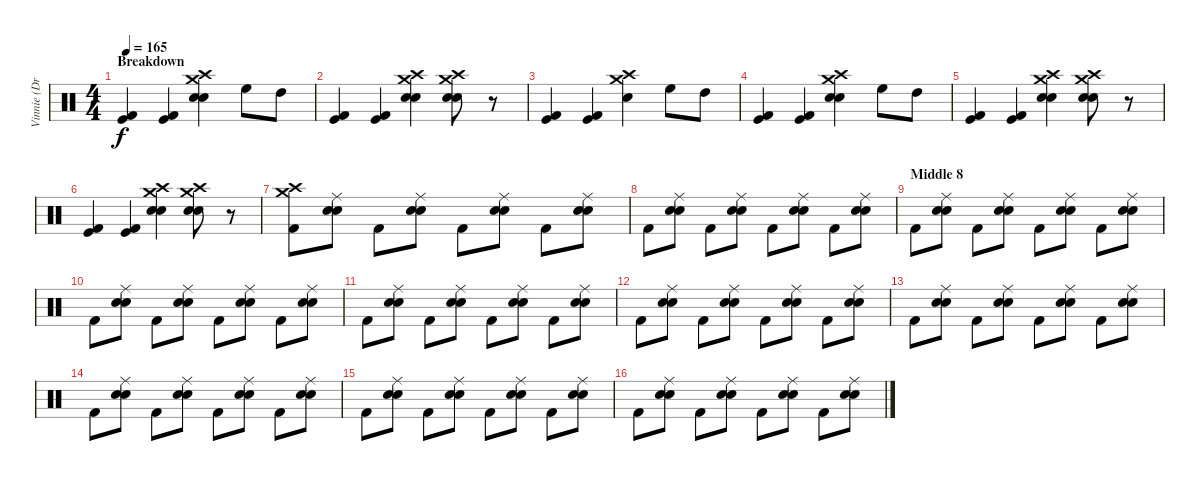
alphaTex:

\track ("Vinnie (Drums)" "Vinnie (Dr") {instrument percussion}
\staff {score}
\articulation defaults
\ts (4 4)
\section ("" "Breakdown")
\tempo 165
\clef neutral
\ks c
("Kick (hit) 2" "Kick (hit)").4{dy f} ("Kick (hit) 2" "Kick (hit)").4 ("Snare (hit) 2" "Electric Snare (hit)" "Crash medium (hit)" "Crash high (hit)").4 "High Floor Tom (hit)".8 "High Tom (hit)".8 |
("Kick (hit) 2" "Kick (hit)").4 ("Kick (hit) 2" "Kick (hit)").4 ("Snare (hit) 2" "Crash medium (hit)" "Crash high (hit)" "Electric Snare (hit)").4 ("Snare (hit) 2" "Crash medium (hit)" "Crash high (hit)" "Electric Snare (hit)").8 r.8 |
("Kick (hit) 2" "Kick (hit)").4 ("Kick (hit) 2" "Kick (hit)").4 ("Snare (hit) 2" "Crash medium (hit)" "Crash high (hit)").4 "High Floor Tom (hit)".8 "High Tom (hit)".8 |
("Kick (hit) 2" "Kick (hit)").4 ("Kick (hit) 2" "Kick (hit)").4 ("Snare (hit) 2" "Electric Snare (hit)" "Crash medium (hit)" "Crash high (hit)").4 "High Floor Tom (hit)".8 "High Tom (hit)".8 |
("Kick (hit) 2" "Kick (hit)").4 ("Kick (hit) 2" "Kick (hit)").4 ("Snare (hit) 2" "Crash medium (hit)" "Crash high (hit)" "Electric Snare (hit)").4 ("Snare (hit) 2" "Crash medium (hit)" "Crash high (hit)" "Electric Snare (hit)").8 r.8 |
("Kick (hit) 2" "Kick (hit)").4 ("Kick (hit) 2" "Kick (hit)").4 ("Snare (hit) 2" "Crash medium (hit)" "Crash high (hit)" "Electric Snare (hit)").4 ("Snare (hit) 2" "Crash medium (hit)" "Crash high (hit)" "Electric Snare (hit)").8 r.8 |
("Kick (hit) 2" "Crash high (hit)" "Crash medium (hit)").8 ("Snare (hit) 2" "Electric Snare (hit)" "Ride (middle)").8 "Kick (hit) 2".8 ("Snare (hit) 2" "Electric Snare (hit)" "Ride (middle)").8 "Kick (hit) 2".8 ("Snare (hit) 2" "Electric Snare (hit)" "Ride (middle)").8 "Kick (hit) 2".8 ("Snare (hit) 2" "Electric Snare (hit)" "Ride (middle)").8 |
"Kick (hit) 2".8 ("Snare (hit) 2" "Electric Snare (hit)" "Ride (middle)").8 "Kick (hit) 2".8 ("Snare (hit) 2" "Electric Snare (hit)" "Ride (middle)").8 "Kick (hit) 2".8 ("Snare (hit) 2" "Electric Snare (hit)" "Ride (middle)").8 "Kick (hit) 2".8 ("Snare (hit) 2" "Electric Snare (hit)" "Ride (middle)").8 |
\section ("" "Middle 8")
"Kick (hit) 2".8 ("Snare (hit) 2" "Electric Snare (hit)" "Ride (middle)").8 "Kick (hit) 2".8 ("Snare (hit) 2" "Electric Snare (hit)" "Ride (middle)").8 "Kick (hit) 2".8 ("Snare (hit) 2" "Electric Snare (hit)" "Ride (middle)").8 "Kick (hit) 2".8 ("Snare (hit) 2" "Electric Snare (hit)" "Ride (middle)").8 |
"Kick (hit) 2".8 ("Snare (hit) 2" "Electric Snare (hit)" "Ride (middle)").8 "Kick (hit) 2".8 ("Snare (hit) 2" "Electric Snare (hit)" "Ride (middle)").8 "Kick (hit) 2".8 ("Snare (hit) 2" "Electric Snare (hit)" "Ride (middle)").8 "Kick (hit) 2".8 ("Snare (hit) 2" "Electric Snare (hit)" "Ride (middle)").8 |
"Kick (hit) 2".8 ("Snare (hit) 2" "Electric Snare (hit)" "Ride (middle)").8 "Kick (hit) 2".8 ("Snare (hit) 2" "Electric Snare (hit)" "Ride (middle)").8 "Kick (hit) 2".8 ("Snare (hit) 2" "Electric Snare (hit)" "Ride (middle)").8 "Kick (hit) 2".8 ("Snare (hit) 2" "Electric Snare (hit)" "Ride (middle)").8 |
"Kick (hit) 2".8 ("Snare (hit) 2" "Electric Snare (hit)" "Ride (middle)").8 "Kick (hit) 2".8 ("Snare (hit) 2" "Electric Snare (hit)" "Ride (middle)").8 "Kick (hit) 2".8 ("Snare (hit) 2" "Electric Snare (hit)" "Ride (middle)").8 "Kick (hit) 2".8 ("Snare (hit) 2" "Electric Snare (hit)" "Ride (middle)").8 |
"Kick (hit) 2".8 ("Snare (hit) 2" "Electric Snare (hit)" "Ride (middle)").8 "Kick (hit) 2".8 ("Snare (hit) 2" "Electric Snare (hit)" "Ride (middle)").8 "Kick (hit) 2".8 ("Snare (hit) 2" "Electric Snare (hit)" "Ride (middle)").8 "Kick (hit) 2".8 ("Snare (hit) 2" "Electric Snare (hit)" "Ride (middle)").8 |
"Kick (hit) 2".8 ("Snare (hit) 2" "Electric Snare (hit)" "Ride (middle)").8 "Kick (hit) 2".8 ("Snare (hit) 2" "Electric Snare (hit)" "Ride (middle)").8 "Kick (hit) 2".8 ("Snare (hit) 2" "Electric Snare (hit)" "Ride (middle)").8 "Kick (hit) 2".8 ("Snare (hit) 2" "Electric Snare (hit)" "Ride (middle)").8 |
"Kick (hit) 2".8 ("Snare (hit) 2" "Electric Snare (hit)" "Ride (middle)").8 "Kick (hit) 2".8 ("Snare (hit) 2" "Electric Snare (hit)" "Ride (middle)").8 "Kick (hit) 2".8 ("Snare (hit) 2" "Electric Snare (hit)" "Ride (middle)").8 "Kick (hit) 2".8 ("Snare (hit) 2" "Electric Snare (hit)" "Ride (middle)").8 |
"Kick (hit) 2".8 ("Snare (hit) 2" "Electric Snare (hit)" "Ride (middle)").8 "Kick (hit) 2".8 ("Snare (hit) 2" "Electric Snare (hit)" "Ride (middle)").8 "Kick (hit) 2".8 ("Snare (hit) 2" "Electric Snare (hit)" "Ride (middle)").8 "Kick (hit) 2".8 ("Snare (hit) 2" "Electric Snare (hit)" "Ride (middle)").8
